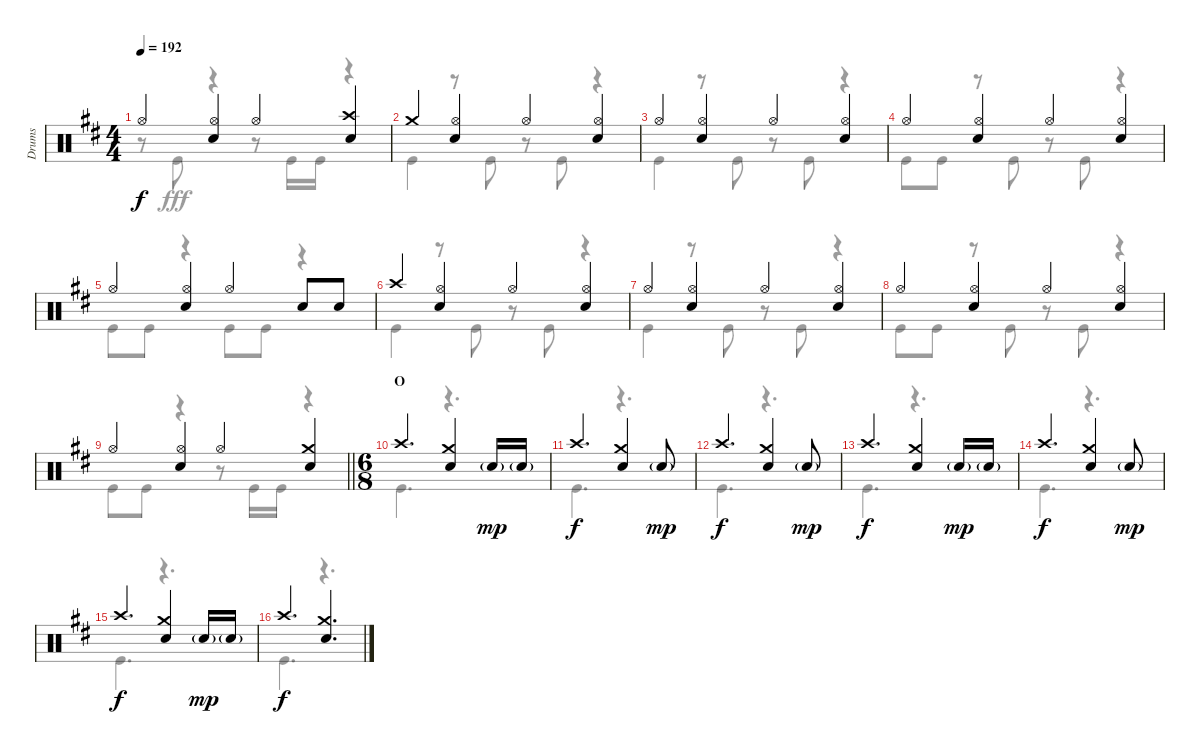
\track ("Drums" "Drums") {instrument percussion}
\staff {score}
\articulation defaults
\voice
\ts (4 4)
\tempo 192
\clef neutral
\ks d "Hi-Hat (open)".4{dy f}
("Hi-Hat (open)" "Snare (hit) 2").4 "Hi-Hat (open)".4 ("Crash high (hit)" "Snare (hit) 2").4 |
"Crash medium (hit)".4 ("Hi-Hat (open)" "Snare (hit) 2").4 "Hi-Hat (open)".4 ("Hi-Hat (open)" "Snare (hit) 2").4 |
"Hi-Hat (open)".4 ("Hi-Hat (open)" "Snare (hit) 2").4 "Hi-Hat (open)".4 ("Hi-Hat (open)" "Snare (hit) 2").4 |
"Hi-Hat (open)".4 ("Hi-Hat (open)" "Snare (hit) 2").4 "Hi-Hat (open)".4 ("Hi-Hat (open)" "Snare (hit) 2").4 |
"Hi-Hat (open)".4 ("Hi-Hat (open)" "Snare (hit) 2").4 "Hi-Hat (open)".4 "Snare (hit) 2".8 "Snare (hit) 2".8 |
"Crash high (hit)".4 ("Hi-Hat (open)" "Snare (hit) 2").4 "Hi-Hat (open)".4 ("Hi-Hat (open)" "Snare (hit) 2").4 |
"Hi-Hat (open)".4 ("Hi-Hat (open)" "Snare (hit) 2").4 "Hi-Hat (open)".4 ("Hi-Hat (open)" "Snare (hit) 2").4 |
"Hi-Hat (open)".4 ("Hi-Hat (open)" "Snare (hit) 2").4 "Hi-Hat (open)".4 ("Hi-Hat (open)" "Snare (hit) 2").4 |
\barLineRight lightlight "Hi-Hat (open)".4
("Hi-Hat (open)" "Snare (hit) 2").4 "Hi-Hat (open)".4 ("Crash medium (hit)" "Snare (hit) 2").4 |
\ts (6 8)
\section ("" "O")
"Crash high (hit)".4{d} ("Crash medium (hit)" "Snare (hit) 2").4 "Snare (hit) 2"{g}.16{dy mp} "Snare (hit) 2"{g}.16 |
"Crash high (hit)".4{d dy f} ("Crash medium (hit)" "Snare (hit) 2").4 "Snare (hit) 2"{g}.8{dy mp} |
"Crash high (hit)".4{d dy f} ("Crash medium (hit)" "Snare (hit) 2").4 "Snare (hit) 2"{g}.8{dy mp} |
"Crash high (hit)".4{d dy f} ("Crash medium (hit)" "Snare (hit) 2").4 "Snare (hit) 2"{g}.16{dy mp} "Snare (hit) 2"{g}.16 |
"Crash high (hit)".4{d dy f} ("Crash medium (hit)" "Snare (hit) 2").4 "Snare (hit) 2"{g}.8{dy mp} |
"Crash high (hit)".4{d dy f} ("Crash medium (hit)" "Snare (hit) 2").4 "Snare (hit) 2"{g}.16{dy mp} "Snare (hit) 2"{g}.16 |
"Crash high (hit)".4{d dy f} ("Crash medium (hit)" "Snare (hit) 2").4{d}
\voice
\clef neutral
\ottava regular
\simile none
\ks d
r.8{dy fff} "Kick (hit)".8 r.4 r.8 "Kick (hit)".16 "Kick (hit)".16 r.4 |
"Kick (hit)".4 r.8 "Kick (hit)".8 r.8 "Kick (hit)".8 r.4 |
"Kick (hit)".4 r.8 "Kick (hit)".8 r.8 "Kick (hit)".8 r.4 |
"Kick (hit)".8 "Kick (hit)".8 r.8 "Kick (hit)".8 r.8 "Kick (hit)".8 r.4 |
"Kick (hit)".8 "Kick (hit)".8 r.4 "Kick (hit)".8 "Kick (hit)".8 r.4 |
"Kick (hit)".4 r.8 "Kick (hit)".8 r.8 "Kick (hit)".8 r.4 |
"Kick (hit)".4 r.8 "Kick (hit)".8 r.8 "Kick (hit)".8 r.4 |
"Kick (hit)".8 "Kick (hit)".8 r.8 "Kick (hit)".8 r.8 "Kick (hit)".8 r.4 |
\barLineRight lightlight "Kick (hit)".8 "Kick (hit)".8
r.4 r.8 "Kick (hit)".16 "Kick (hit)".16 r.4 |
"Kick (hit)".4{d} r.4{d} |
"Kick (hit)".4{d} r.4{d} |
"Kick (hit)".4{d} r.4{d} |
"Kick (hit)".4{d} r.4{d} |
"Kick (hit)".4{d} r.4{d} |
"Kick (hit)".4{d} r.4{d} |
"Kick (hit)".4{d} r.4{d}
